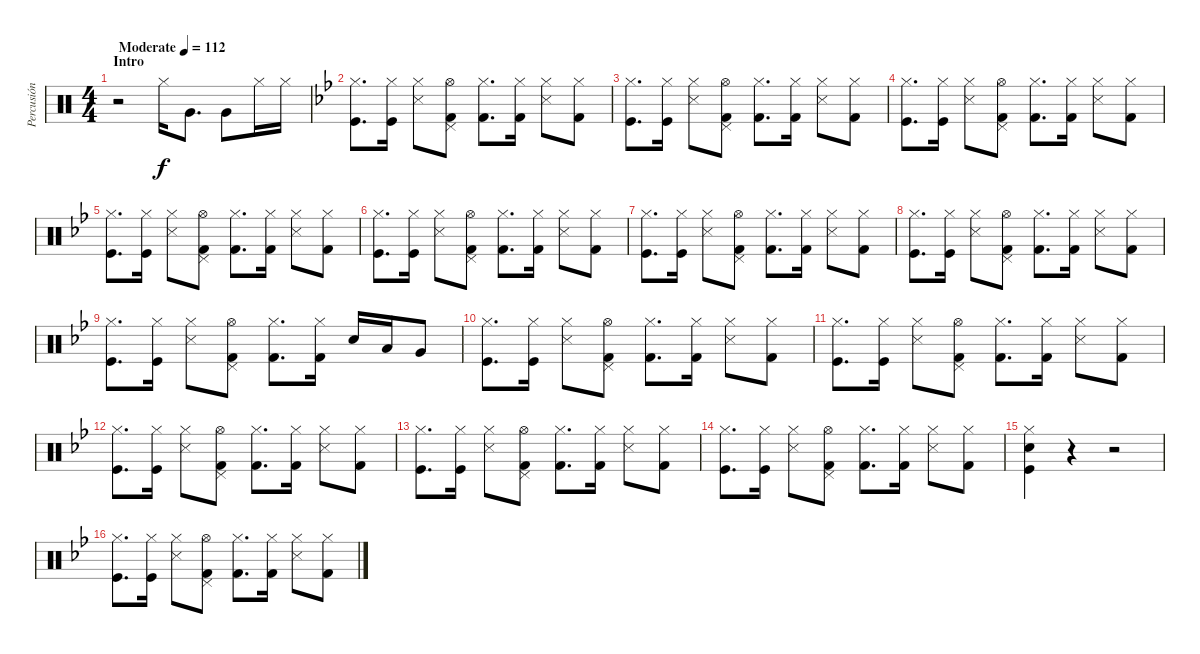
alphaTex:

\track ("Percusión" "Percusión") {instrument percussion}
\staff {score}
\articulation defaults
\ts (4 4)
\section ("" "Intro")
\tempo (112 "Moderate")
\clef neutral
\ks c
r.2{dy f} "Hi-Hat (closed)".16 "Very Low Tom (hit)".8{d} "Very Low Tom (hit)".8 "Hi-Hat (closed)".16 "Hi-Hat (closed)".16 |
\ks bb
("Hi-Hat (closed)" "Kick (hit)").8{d} ("Kick (hit)" "Hi-Hat (closed)").16 ("Hi-Hat (closed)" "Snare (side stick) 3").8 ("Kick (hit) 2" "Pedal Hi-Hat (hit)" "Hi-Hat (open)").8 ("Kick (hit) 2" "Hi-Hat (closed)").8{d} ("Kick (hit) 2" "Hi-Hat (closed)").16 ("Snare (side stick) 3" "Hi-Hat (closed)").8 ("Hi-Hat (closed)" "Kick (hit) 2").8 |
("Hi-Hat (closed)" "Kick (hit)").8{d} ("Kick (hit)" "Hi-Hat (closed)").16 ("Hi-Hat (closed)" "Snare (side stick) 3").8 ("Kick (hit) 2" "Pedal Hi-Hat (hit)" "Hi-Hat (open)").8 ("Kick (hit) 2" "Hi-Hat (closed)").8{d} ("Kick (hit) 2" "Hi-Hat (closed)").16 ("Snare (side stick) 3" "Hi-Hat (closed)").8 ("Hi-Hat (closed)" "Kick (hit) 2").8 |
("Hi-Hat (closed)" "Kick (hit)").8{d} ("Kick (hit)" "Hi-Hat (closed)").16 ("Hi-Hat (closed)" "Snare (side stick) 3").8 ("Kick (hit) 2" "Pedal Hi-Hat (hit)" "Hi-Hat (open)").8 ("Kick (hit) 2" "Hi-Hat (closed)").8{d} ("Kick (hit) 2" "Hi-Hat (closed)").16 ("Snare (side stick) 3" "Hi-Hat (closed)").8 ("Hi-Hat (closed)" "Kick (hit) 2").8 |
("Hi-Hat (closed)" "Kick (hit)").8{d} ("Kick (hit)" "Hi-Hat (closed)").16 ("Hi-Hat (closed)" "Snare (side stick) 3").8 ("Kick (hit) 2" "Pedal Hi-Hat (hit)" "Hi-Hat (open)").8 ("Kick (hit) 2" "Hi-Hat (closed)").8{d} ("Kick (hit) 2" "Hi-Hat (closed)").16 ("Snare (side stick) 3" "Hi-Hat (closed)").8 ("Hi-Hat (closed)" "Kick (hit) 2").8 |
("Hi-Hat (closed)" "Kick (hit)").8{d} ("Kick (hit)" "Hi-Hat (closed)").16 ("Hi-Hat (closed)" "Snare (side stick) 3").8 ("Kick (hit) 2" "Pedal Hi-Hat (hit)" "Hi-Hat (open)").8 ("Kick (hit) 2" "Hi-Hat (closed)").8{d} ("Kick (hit) 2" "Hi-Hat (closed)").16 ("Snare (side stick) 3" "Hi-Hat (closed)").8 ("Hi-Hat (closed)" "Kick (hit) 2").8 |
("Hi-Hat (closed)" "Kick (hit)").8{d} ("Kick (hit)" "Hi-Hat (closed)").16 ("Hi-Hat (closed)" "Snare (side stick) 3").8 ("Kick (hit) 2" "Pedal Hi-Hat (hit)" "Hi-Hat (open)").8 ("Kick (hit) 2" "Hi-Hat (closed)").8{d} ("Kick (hit) 2" "Hi-Hat (closed)").16 ("Snare (side stick) 3" "Hi-Hat (closed)").8 ("Hi-Hat (closed)" "Kick (hit) 2").8 |
("Hi-Hat (closed)" "Kick (hit)").8{d} ("Kick (hit)" "Hi-Hat (closed)").16 ("Hi-Hat (closed)" "Snare (side stick) 3").8 ("Kick (hit) 2" "Pedal Hi-Hat (hit)" "Hi-Hat (open)").8 ("Kick (hit) 2" "Hi-Hat (closed)").8{d} ("Kick (hit) 2" "Hi-Hat (closed)").16 ("Snare (side stick) 3" "Hi-Hat (closed)").8 ("Hi-Hat (closed)" "Kick (hit) 2").8 |
("Hi-Hat (closed)" "Kick (hit)").8{d} ("Kick (hit)" "Hi-Hat (closed)").16 ("Hi-Hat (closed)" "Snare (side stick) 3").8 ("Hi-Hat (open)" "Kick (hit) 2" "Pedal Hi-Hat (hit)").8 ("Kick (hit) 2" "Hi-Hat (closed)").8{d} ("Kick (hit) 2" "Hi-Hat (closed)").16 "Snare (hit) 2".16 "Low Tom (hit)".16 "Very Low Tom (hit)".8 |
("Hi-Hat (closed)" "Kick (hit)").8{d} ("Kick (hit)" "Hi-Hat (closed)").16 ("Hi-Hat (closed)" "Snare (side stick) 3").8 ("Kick (hit) 2" "Pedal Hi-Hat (hit)" "Hi-Hat (open)").8 ("Kick (hit) 2" "Hi-Hat (closed)").8{d} ("Kick (hit) 2" "Hi-Hat (closed)").16 ("Snare (side stick) 3" "Hi-Hat (closed)").8 ("Hi-Hat (closed)" "Kick (hit) 2").8 |
("Hi-Hat (closed)" "Kick (hit)").8{d} ("Kick (hit)" "Hi-Hat (closed)").16 ("Hi-Hat (closed)" "Snare (side stick) 3").8 ("Kick (hit) 2" "Pedal Hi-Hat (hit)" "Hi-Hat (open)").8 ("Kick (hit) 2" "Hi-Hat (closed)").8{d} ("Kick (hit) 2" "Hi-Hat (closed)").16 ("Snare (side stick) 3" "Hi-Hat (closed)").8 ("Hi-Hat (closed)" "Kick (hit) 2").8 |
("Hi-Hat (closed)" "Kick (hit)").8{d} ("Kick (hit)" "Hi-Hat (closed)").16 ("Hi-Hat (closed)" "Snare (side stick) 3").8 ("Kick (hit) 2" "Pedal Hi-Hat (hit)" "Hi-Hat (open)").8 ("Kick (hit) 2" "Hi-Hat (closed)").8{d} ("Kick (hit) 2" "Hi-Hat (closed)").16 ("Snare (side stick) 3" "Hi-Hat (closed)").8 ("Hi-Hat (closed)" "Kick (hit) 2").8 |
("Hi-Hat (closed)" "Kick (hit)").8{d} ("Kick (hit)" "Hi-Hat (closed)").16 ("Hi-Hat (closed)" "Snare (side stick) 3").8 ("Kick (hit) 2" "Pedal Hi-Hat (hit)" "Hi-Hat (open)").8 ("Kick (hit) 2" "Hi-Hat (closed)").8{d} ("Kick (hit) 2" "Hi-Hat (closed)").16 ("Snare (side stick) 3" "Hi-Hat (closed)").8 ("Hi-Hat (closed)" "Kick (hit) 2").8 |
("Hi-Hat (closed)" "Kick (hit)").8{d} ("Kick (hit)" "Hi-Hat (closed)").16 ("Hi-Hat (closed)" "Snare (side stick) 3").8 ("Kick (hit) 2" "Pedal Hi-Hat (hit)" "Hi-Hat (open)").8 ("Kick (hit) 2" "Hi-Hat (closed)").8{d} ("Kick (hit) 2" "Hi-Hat (closed)").16 ("Snare (side stick) 3" "Hi-Hat (closed)").8 ("Hi-Hat (closed)" "Kick (hit) 2").8 |
("Snare (hit) 2" "Kick (hit)" "Hi-Hat (closed)").4 r.4 r.2 |
("Hi-Hat (closed)" "Kick (hit)").8{d} ("Kick (hit)" "Hi-Hat (closed)").16 ("Hi-Hat (closed)" "Snare (side stick) 3").8 ("Kick (hit) 2" "Pedal Hi-Hat (hit)" "Hi-Hat (open)").8 ("Kick (hit) 2" "Hi-Hat (closed)").8{d} ("Kick (hit) 2" "Hi-Hat (closed)").16 ("Snare (side stick) 3" "Hi-Hat (closed)").8 ("Hi-Hat (closed)" "Kick (hit) 2").8
